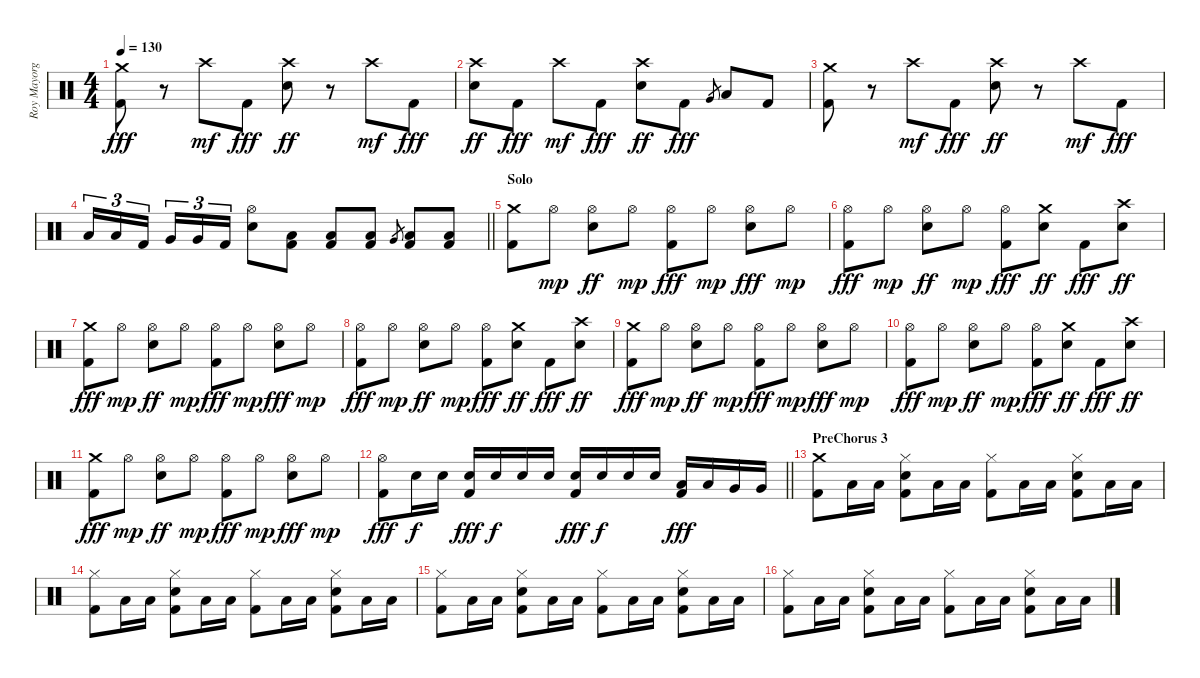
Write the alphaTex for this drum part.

\track ("Roy Mayorga" "Roy Mayorg") {instrument percussion}
\staff {score}
\articulation defaults
\ts (4 4)
\tempo 130
\clef neutral
\ks c
("Crash medium (hit)" "Kick (hit) 2").8{dy fff} r.8 "Crash high (hit)".8{dy mf} "Kick (hit) 2".8{dy fff} ("Crash high (hit)" "Electric Snare (hit)").8{dy ff} r.8 "Crash high (hit)".8{dy mf} "Kick (hit) 2".8{dy fff} |
("Crash high (hit)" "Electric Snare (hit)").8{dy ff} "Kick (hit) 2".8{dy fff} "Crash high (hit)".8{dy mf} "Kick (hit) 2".8{dy fff} ("Crash high (hit)" "Electric Snare (hit)").8{dy ff} "Kick (hit) 2".8{dy fff} "Very Low Tom (hit)".8{gr} "Low Floor Tom (hit)".8 "Kick (hit) 2".8 |
("Crash medium (hit)" "Kick (hit) 2").8 r.8 "Crash high (hit)".8{dy mf} "Kick (hit) 2".8{dy fff} ("Crash high (hit)" "Electric Snare (hit)").8{dy ff} r.8 "Crash high (hit)".8{dy mf} "Kick (hit) 2".8{dy fff} |
\barLineRight lightlight "Low Tom (hit)".16{tu (3 2)} "Low Tom (hit)".16{tu (3 2)} "Kick (hit) 2".16{tu (3 2) beam splitsecondary} "Very Low Tom (hit)".16{tu (3 2)} "Very Low Tom (hit)".16{tu (3 2)} "Kick (hit) 2".16{tu (3 2)}
("Hi-Hat (open)" "Electric Snare (hit)").8 ("Low Floor Tom (hit)" "Kick (hit) 2").8 ("Low Floor Tom (hit)" "Kick (hit) 2").8 ("Low Floor Tom (hit)" "Kick (hit) 2").8 "Very Low Tom (hit)".8{gr} ("Low Floor Tom (hit)" "Kick (hit) 2").8 ("Low Floor Tom (hit)" "Kick (hit) 2").8 |
\section ("" "Solo")
("Crash medium (hit)" "Kick (hit) 2").8 "Hi-Hat (open)".8{dy mp} ("Hi-Hat (open)" "Electric Snare (hit)").8{dy ff} "Hi-Hat (open)".8{dy mp} ("Hi-Hat (open)" "Kick (hit) 2").8{dy fff} "Hi-Hat (open)".8{dy mp} ("Hi-Hat (open)" "Electric Snare (hit)").8{dy fff} "Hi-Hat (open)".8{dy mp} |
("Hi-Hat (open)" "Kick (hit) 2").8{dy fff} "Hi-Hat (open)".8{dy mp} ("Hi-Hat (open)" "Electric Snare (hit)").8{dy ff} "Hi-Hat (open)".8{dy mp} ("Hi-Hat (open)" "Kick (hit) 2").8{dy fff} ("Crash medium (hit)" "Electric Snare (hit)").8{dy ff} "Kick (hit) 2".8{dy fff} ("Crash high (hit)" "Electric Snare (hit)").8{dy ff} |
("Crash medium (hit)" "Kick (hit) 2").8{dy fff} "Hi-Hat (open)".8{dy mp} ("Hi-Hat (open)" "Electric Snare (hit)").8{dy ff} "Hi-Hat (open)".8{dy mp} ("Hi-Hat (open)" "Kick (hit) 2").8{dy fff} "Hi-Hat (open)".8{dy mp} ("Hi-Hat (open)" "Electric Snare (hit)").8{dy fff} "Hi-Hat (open)".8{dy mp} |
("Hi-Hat (open)" "Kick (hit) 2").8{dy fff} "Hi-Hat (open)".8{dy mp} ("Hi-Hat (open)" "Electric Snare (hit)").8{dy ff} "Hi-Hat (open)".8{dy mp} ("Hi-Hat (open)" "Kick (hit) 2").8{dy fff} ("Crash medium (hit)" "Electric Snare (hit)").8{dy ff} "Kick (hit) 2".8{dy fff} ("Crash high (hit)" "Electric Snare (hit)").8{dy ff} |
("Crash medium (hit)" "Kick (hit) 2").8{dy fff} "Hi-Hat (open)".8{dy mp} ("Hi-Hat (open)" "Electric Snare (hit)").8{dy ff} "Hi-Hat (open)".8{dy mp} ("Hi-Hat (open)" "Kick (hit) 2").8{dy fff} "Hi-Hat (open)".8{dy mp} ("Hi-Hat (open)" "Electric Snare (hit)").8{dy fff} "Hi-Hat (open)".8{dy mp} |
("Hi-Hat (open)" "Kick (hit) 2").8{dy fff} "Hi-Hat (open)".8{dy mp} ("Hi-Hat (open)" "Electric Snare (hit)").8{dy ff} "Hi-Hat (open)".8{dy mp} ("Hi-Hat (open)" "Kick (hit) 2").8{dy fff} ("Crash medium (hit)" "Electric Snare (hit)").8{dy ff} "Kick (hit) 2".8{dy fff} ("Crash high (hit)" "Electric Snare (hit)").8{dy ff} |
("Crash medium (hit)" "Kick (hit) 2").8{dy fff} "Hi-Hat (open)".8{dy mp} ("Hi-Hat (open)" "Electric Snare (hit)").8{dy ff} "Hi-Hat (open)".8{dy mp} ("Hi-Hat (open)" "Kick (hit) 2").8{dy fff} "Hi-Hat (open)".8{dy mp} ("Hi-Hat (open)" "Electric Snare (hit)").8{dy fff} "Hi-Hat (open)".8{dy mp} |
\barLineRight lightlight
("Hi-Hat (open)" "Kick (hit) 2").8{dy fff} "Electric Snare (hit)".16{dy f} "Electric Snare (hit)".16 ("Electric Snare (hit)" "Kick (hit) 2").16{dy fff} "Electric Snare (hit)".16{dy f} "Electric Snare (hit)".16 "Electric Snare (hit)".16 ("Electric Snare (hit)" "Kick (hit) 2").16{dy fff} "Electric Snare (hit)".16{dy f} "Electric Snare (hit)".16 "Electric Snare (hit)".16 ("Low Tom (hit)" "Kick (hit) 2").16{dy fff} "Low Tom (hit)".16 "Very Low Tom (hit)".16 "Very Low Tom (hit)".16 |
\section ("" "PreChorus 3")
("Crash medium (hit)" "Kick (hit) 2").8 "Low Floor Tom (hit)".16 "Low Floor Tom (hit)".16 ("Hi-Hat (closed)" "Electric Snare (hit)" "Kick (hit) 2").8 "Low Floor Tom (hit)".16 "Low Floor Tom (hit)".16 ("Hi-Hat (closed)" "Kick (hit) 2").8 "Low Floor Tom (hit)".16 "Low Floor Tom (hit)".16 ("Hi-Hat (closed)" "Electric Snare (hit)" "Kick (hit) 2").8 "Low Floor Tom (hit)".16 "Low Floor Tom (hit)".16 |
("Hi-Hat (closed)" "Kick (hit) 2").8 "Low Floor Tom (hit)".16 "Low Floor Tom (hit)".16 ("Hi-Hat (closed)" "Electric Snare (hit)" "Kick (hit) 2").8 "Low Floor Tom (hit)".16 "Low Floor Tom (hit)".16 ("Hi-Hat (closed)" "Kick (hit) 2").8 "Low Floor Tom (hit)".16 "Low Floor Tom (hit)".16 ("Hi-Hat (closed)" "Electric Snare (hit)" "Kick (hit) 2").8 "Low Floor Tom (hit)".16 "Low Floor Tom (hit)".16 |
("Hi-Hat (closed)" "Kick (hit) 2").8 "Low Floor Tom (hit)".16 "Low Floor Tom (hit)".16 ("Hi-Hat (closed)" "Electric Snare (hit)" "Kick (hit) 2").8 "Low Floor Tom (hit)".16 "Low Floor Tom (hit)".16 ("Hi-Hat (closed)" "Kick (hit) 2").8 "Low Floor Tom (hit)".16 "Low Floor Tom (hit)".16 ("Hi-Hat (closed)" "Electric Snare (hit)" "Kick (hit) 2").8 "Low Floor Tom (hit)".16 "Low Floor Tom (hit)".16 |
("Hi-Hat (closed)" "Kick (hit) 2").8 "Low Floor Tom (hit)".16 "Low Floor Tom (hit)".16 ("Hi-Hat (closed)" "Electric Snare (hit)" "Kick (hit) 2").8 "Low Floor Tom (hit)".16 "Low Floor Tom (hit)".16 ("Hi-Hat (closed)" "Kick (hit) 2").8 "Low Floor Tom (hit)".16 "Low Floor Tom (hit)".16 ("Hi-Hat (closed)" "Electric Snare (hit)" "Kick (hit) 2").8 "Low Floor Tom (hit)".16 "Low Floor Tom (hit)".16
